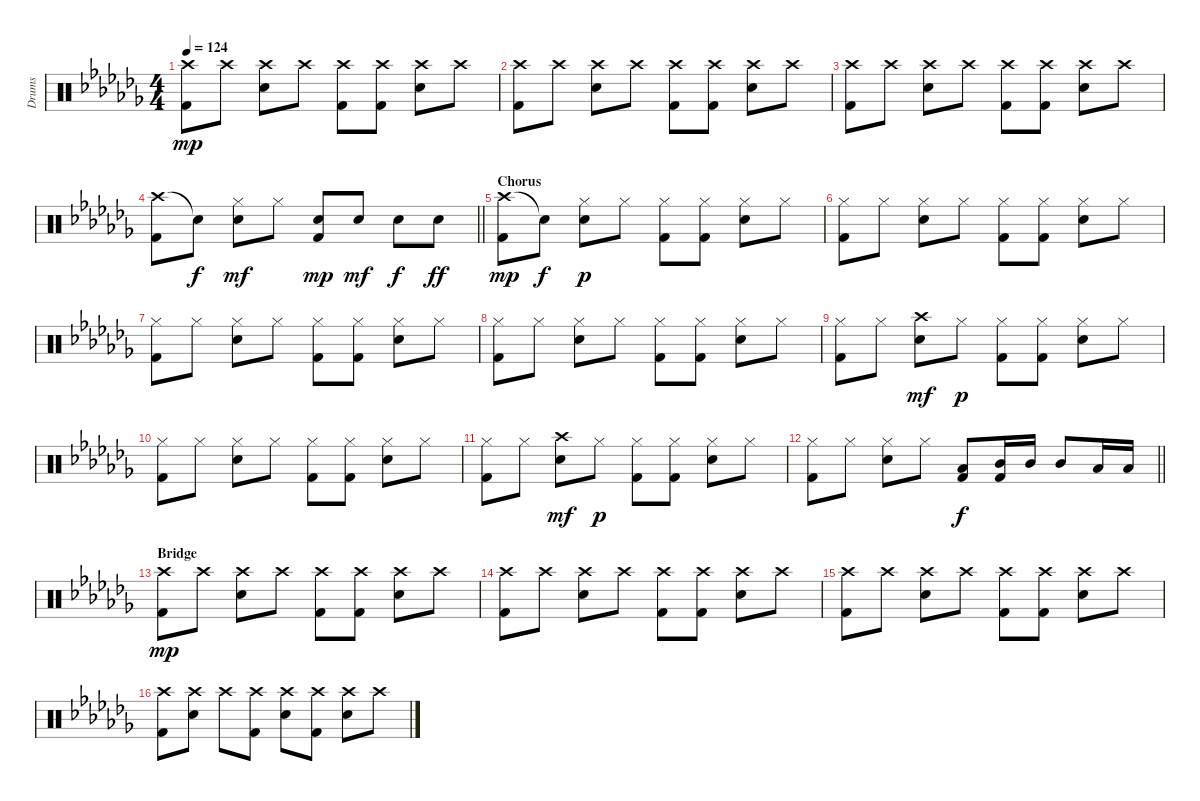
\track ("Drums" "Drums") {instrument percussion}
\staff {score}
\articulation defaults
\ts (4 4)
\tempo 124
\clef neutral
\ks cb
("Crash high (hit)" "Kick (hit) 2").8{dy mp} "Crash high (hit)".8 ("Crash high (hit)" "Electric Snare (hit)").8 "Crash high (hit)".8 ("Crash high (hit)" "Kick (hit) 2").8 ("Crash high (hit)" "Kick (hit) 2").8 ("Crash high (hit)" "Electric Snare (hit)").8 "Crash high (hit)".8 |
("Crash high (hit)" "Kick (hit) 2").8 "Crash high (hit)".8 ("Crash high (hit)" "Electric Snare (hit)").8 "Crash high (hit)".8 ("Crash high (hit)" "Kick (hit) 2").8 ("Crash high (hit)" "Kick (hit) 2").8 ("Crash high (hit)" "Electric Snare (hit)").8 "Crash high (hit)".8 |
("Crash high (hit)" "Kick (hit) 2").8 "Crash high (hit)".8 ("Crash high (hit)" "Electric Snare (hit)").8 "Crash high (hit)".8 ("Crash high (hit)" "Kick (hit) 2").8 ("Crash high (hit)" "Kick (hit) 2").8 ("Crash high (hit)" "Electric Snare (hit)").8 "Crash high (hit)".8 |
\barLineRight lightlight
("Crash high (hit)" "Kick (hit) 2").8 "Snare (hit)"{t}.8{dy f} ("Hi-Hat (closed)" "Electric Snare (hit)").8{dy mf} "Hi-Hat (closed)".8 ("Electric Snare (hit)" "Kick (hit) 2").8{dy mp} "Electric Snare (hit)".8{dy mf} "Electric Snare (hit)".8{dy f} "Electric Snare (hit)".8{dy ff} |
\section ("" "Chorus")
("Crash high (hit)" "Kick (hit) 2").8{dy mp} "Snare (hit)"{t}.8{dy f} ("Hi-Hat (closed)" "Electric Snare (hit)").8{dy p} "Hi-Hat (closed)".8 ("Hi-Hat (closed)" "Kick (hit) 2").8 ("Hi-Hat (closed)" "Kick (hit) 2").8 ("Hi-Hat (closed)" "Electric Snare (hit)").8 "Hi-Hat (closed)".8 |
("Hi-Hat (closed)" "Kick (hit) 2").8 "Hi-Hat (closed)".8 ("Hi-Hat (closed)" "Electric Snare (hit)").8 "Hi-Hat (closed)".8 ("Hi-Hat (closed)" "Kick (hit) 2").8 ("Hi-Hat (closed)" "Kick (hit) 2").8 ("Hi-Hat (closed)" "Electric Snare (hit)").8 "Hi-Hat (closed)".8 |
("Hi-Hat (closed)" "Kick (hit) 2").8 "Hi-Hat (closed)".8 ("Hi-Hat (closed)" "Electric Snare (hit)").8 "Hi-Hat (closed)".8 ("Hi-Hat (closed)" "Kick (hit) 2").8 ("Hi-Hat (closed)" "Kick (hit) 2").8 ("Hi-Hat (closed)" "Electric Snare (hit)").8 "Hi-Hat (closed)".8 |
("Hi-Hat (closed)" "Kick (hit) 2").8 "Hi-Hat (closed)".8 ("Hi-Hat (closed)" "Electric Snare (hit)").8 "Hi-Hat (closed)".8 ("Hi-Hat (closed)" "Kick (hit) 2").8 ("Hi-Hat (closed)" "Kick (hit) 2").8 ("Hi-Hat (closed)" "Electric Snare (hit)").8 "Hi-Hat (closed)".8 |
("Hi-Hat (closed)" "Kick (hit) 2").8 "Hi-Hat (closed)".8 ("Crash high (hit)" "Electric Snare (hit)").8{dy mf} "Hi-Hat (closed)".8{dy p} ("Hi-Hat (closed)" "Kick (hit) 2").8 ("Hi-Hat (closed)" "Kick (hit) 2").8 ("Hi-Hat (closed)" "Electric Snare (hit)").8 "Hi-Hat (closed)".8 |
("Hi-Hat (closed)" "Kick (hit) 2").8 "Hi-Hat (closed)".8 ("Hi-Hat (closed)" "Electric Snare (hit)").8 "Hi-Hat (closed)".8 ("Hi-Hat (closed)" "Kick (hit) 2").8 ("Hi-Hat (closed)" "Kick (hit) 2").8 ("Hi-Hat (closed)" "Electric Snare (hit)").8 "Hi-Hat (closed)".8 |
("Hi-Hat (closed)" "Kick (hit) 2").8 "Hi-Hat (closed)".8 ("Crash high (hit)" "Electric Snare (hit)").8{dy mf} "Hi-Hat (closed)".8{dy p} ("Hi-Hat (closed)" "Kick (hit) 2").8 ("Hi-Hat (closed)" "Kick (hit) 2").8 ("Hi-Hat (closed)" "Electric Snare (hit)").8 "Hi-Hat (closed)".8 |
\barLineRight lightlight
("Hi-Hat (closed)" "Kick (hit) 2").8 "Hi-Hat (closed)".8 ("Hi-Hat (closed)" "Electric Snare (hit)").8 "Hi-Hat (closed)".8 ("Low Tom (hit)" "Kick (hit) 2").8{dy f} ("Mid Tom (hit)" "Kick (hit) 2").16 "Mid Tom (hit)".16 "Mid Tom (hit)".8 "Low Tom (hit)".16 "Low Tom (hit)".16 |
\section ("" "Bridge")
("Crash high (hit)" "Kick (hit) 2").8{dy mp} "Crash high (hit)".8 ("Crash high (hit)" "Electric Snare (hit)").8 "Crash high (hit)".8 ("Crash high (hit)" "Kick (hit) 2").8 ("Crash high (hit)" "Kick (hit) 2").8 ("Crash high (hit)" "Electric Snare (hit)").8 "Crash high (hit)".8 |
("Crash high (hit)" "Kick (hit) 2").8 "Crash high (hit)".8 ("Crash high (hit)" "Electric Snare (hit)").8 "Crash high (hit)".8 ("Crash high (hit)" "Kick (hit) 2").8 ("Crash high (hit)" "Kick (hit) 2").8 ("Crash high (hit)" "Electric Snare (hit)").8 "Crash high (hit)".8 |
("Crash high (hit)" "Kick (hit) 2").8 "Crash high (hit)".8 ("Crash high (hit)" "Electric Snare (hit)").8 "Crash high (hit)".8 ("Crash high (hit)" "Kick (hit) 2").8 ("Crash high (hit)" "Kick (hit) 2").8 ("Crash high (hit)" "Electric Snare (hit)").8 "Crash high (hit)".8 |
("Crash high (hit)" "Kick (hit) 2").8 ("Crash high (hit)" "Electric Snare (hit)").8 "Crash high (hit)".8 ("Crash high (hit)" "Kick (hit) 2").8 ("Crash high (hit)" "Electric Snare (hit)").8 ("Crash high (hit)" "Kick (hit) 2").8 ("Crash high (hit)" "Electric Snare (hit)").8 "Crash high (hit)".8
